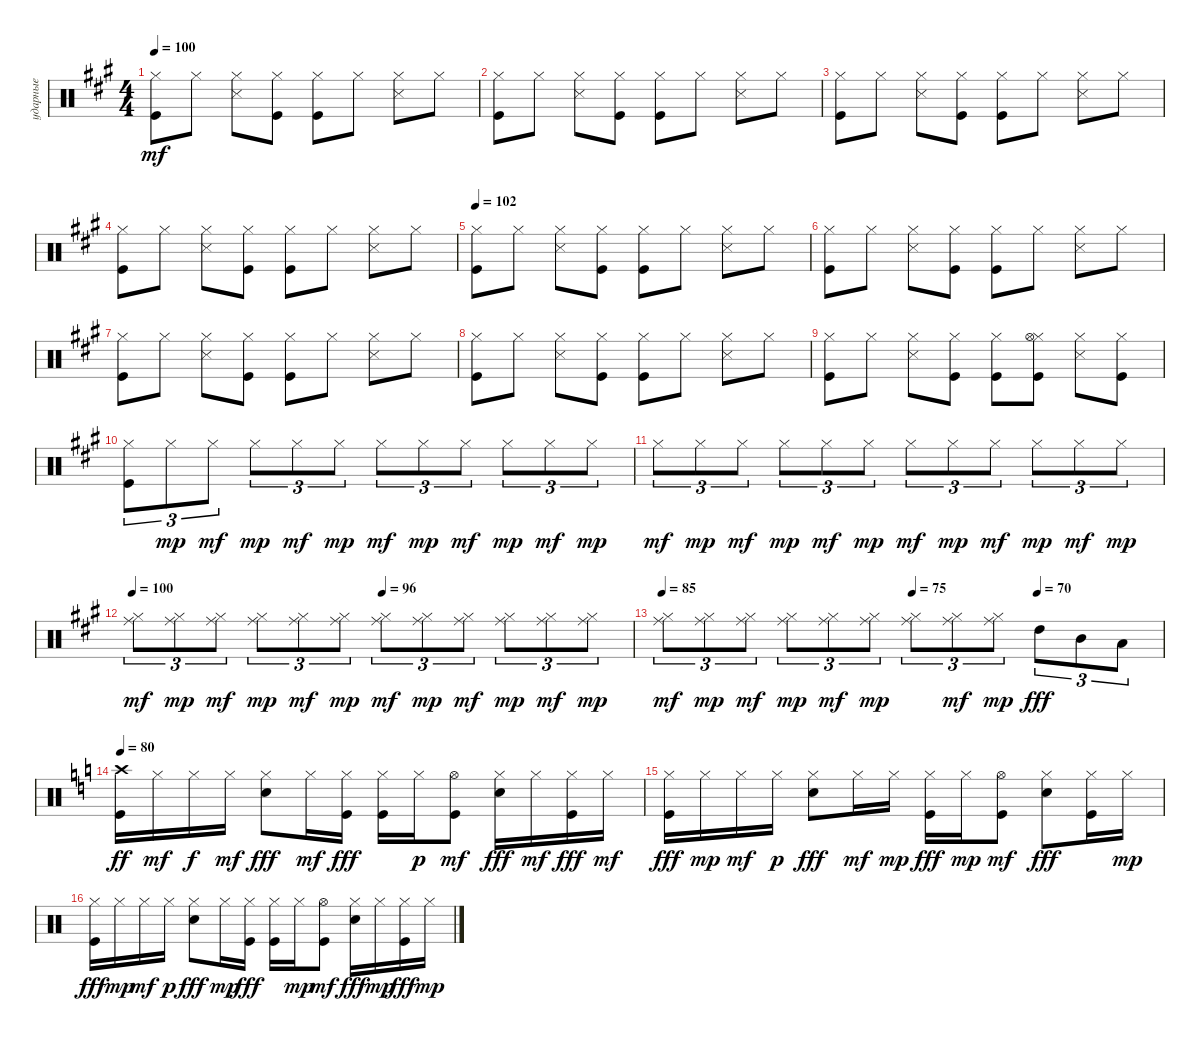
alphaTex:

\track ("ударные" "ударные") {instrument percussion}
\staff {score}
\articulation defaults
\ts (4 4)
\tempo 100
\clef neutral
\ks f#minor
("Hi-Hat (closed)" "Kick (hit)").8{dy mf} "Hi-Hat (closed)".8 ("Hi-Hat (closed)" "Snare (side stick) 3").8 ("Hi-Hat (closed)" "Kick (hit)").8 ("Hi-Hat (closed)" "Kick (hit)").8 "Hi-Hat (closed)".8 ("Hi-Hat (closed)" "Snare (side stick) 3").8 "Hi-Hat (closed)".8 |
("Hi-Hat (closed)" "Kick (hit)").8 "Hi-Hat (closed)".8 ("Hi-Hat (closed)" "Snare (side stick) 3").8 ("Hi-Hat (closed)" "Kick (hit)").8 ("Hi-Hat (closed)" "Kick (hit)").8 "Hi-Hat (closed)".8 ("Hi-Hat (closed)" "Snare (side stick) 3").8 "Hi-Hat (closed)".8 |
("Hi-Hat (closed)" "Kick (hit)").8 "Hi-Hat (closed)".8 ("Hi-Hat (closed)" "Snare (side stick) 3").8 ("Hi-Hat (closed)" "Kick (hit)").8 ("Hi-Hat (closed)" "Kick (hit)").8 "Hi-Hat (closed)".8 ("Hi-Hat (closed)" "Snare (side stick) 3").8 "Hi-Hat (closed)".8 |
("Hi-Hat (closed)" "Kick (hit)").8 "Hi-Hat (closed)".8 ("Hi-Hat (closed)" "Snare (side stick) 3").8 ("Hi-Hat (closed)" "Kick (hit)").8 ("Hi-Hat (closed)" "Kick (hit)").8 "Hi-Hat (closed)".8 ("Hi-Hat (closed)" "Snare (side stick) 3").8 "Hi-Hat (closed)".8 |
\tempo 102
("Hi-Hat (closed)" "Kick (hit)").8 "Hi-Hat (closed)".8 ("Hi-Hat (closed)" "Snare (side stick) 3").8 ("Hi-Hat (closed)" "Kick (hit)").8 ("Hi-Hat (closed)" "Kick (hit)").8 "Hi-Hat (closed)".8 ("Hi-Hat (closed)" "Snare (side stick) 3").8 "Hi-Hat (closed)".8 |
("Hi-Hat (closed)" "Kick (hit)").8 "Hi-Hat (closed)".8 ("Hi-Hat (closed)" "Snare (side stick) 3").8 ("Hi-Hat (closed)" "Kick (hit)").8 ("Hi-Hat (closed)" "Kick (hit)").8 "Hi-Hat (closed)".8 ("Hi-Hat (closed)" "Snare (side stick) 3").8 "Hi-Hat (closed)".8 |
("Hi-Hat (closed)" "Kick (hit)").8 "Hi-Hat (closed)".8 ("Hi-Hat (closed)" "Snare (side stick) 3").8 ("Hi-Hat (closed)" "Kick (hit)").8 ("Hi-Hat (closed)" "Kick (hit)").8 "Hi-Hat (closed)".8 ("Hi-Hat (closed)" "Snare (side stick) 3").8 "Hi-Hat (closed)".8 |
("Hi-Hat (closed)" "Kick (hit)").8 "Hi-Hat (closed)".8 ("Hi-Hat (closed)" "Snare (side stick) 3").8 ("Hi-Hat (closed)" "Kick (hit)").8 ("Hi-Hat (closed)" "Kick (hit)").8 "Hi-Hat (closed)".8 ("Hi-Hat (closed)" "Snare (side stick) 3").8 "Hi-Hat (closed)".8 |
("Hi-Hat (closed)" "Kick (hit)").8 "Hi-Hat (closed)".8 ("Hi-Hat (closed)" "Snare (side stick) 3").8 ("Hi-Hat (closed)" "Kick (hit)").8 ("Hi-Hat (closed)" "Kick (hit)").8 ("Hi-Hat (closed)" "Hi-Hat (open)" "Kick (hit)").8 ("Hi-Hat (closed)" "Snare (side stick) 3").8 ("Hi-Hat (closed)" "Kick (hit)").8 |
("Hi-Hat (closed)" "Kick (hit)").8{tu (3 2)} "Hi-Hat (closed)".8{tu (3 2) dy mp} "Hi-Hat (closed)".8{tu (3 2) dy mf} "Hi-Hat (closed)".8{tu (3 2) dy mp} "Hi-Hat (closed)".8{tu (3 2) dy mf} "Hi-Hat (closed)".8{tu (3 2) dy mp} "Hi-Hat (closed)".8{tu (3 2) dy mf} "Hi-Hat (closed)".8{tu (3 2) dy mp} "Hi-Hat (closed)".8{tu (3 2) dy mf} "Hi-Hat (closed)".8{tu (3 2) dy mp} "Hi-Hat (closed)".8{tu (3 2) dy mf} "Hi-Hat (closed)".8{tu (3 2) dy mp} |
"Hi-Hat (closed)".8{tu (3 2) dy mf} "Hi-Hat (closed)".8{tu (3 2) dy mp} "Hi-Hat (closed)".8{tu (3 2) dy mf} "Hi-Hat (closed)".8{tu (3 2) dy mp} "Hi-Hat (closed)".8{tu (3 2) dy mf} "Hi-Hat (closed)".8{tu (3 2) dy mp} "Hi-Hat (closed)".8{tu (3 2) dy mf} "Hi-Hat (closed)".8{tu (3 2) dy mp} "Hi-Hat (closed)".8{tu (3 2) dy mf} "Hi-Hat (closed)".8{tu (3 2) dy mp} "Hi-Hat (closed)".8{tu (3 2) dy mf} "Hi-Hat (closed)".8{tu (3 2) dy mp} |
\tempo 100
\tempo (96 0.5)
("Ride (middle)" "Hi-Hat (closed)").8{tu (3 2) dy mf} ("Ride (middle)" "Hi-Hat (closed)").8{tu (3 2) dy mp} ("Ride (middle)" "Hi-Hat (closed)").8{tu (3 2) dy mf} ("Ride (middle)" "Hi-Hat (closed)").8{tu (3 2) dy mp} ("Ride (middle)" "Hi-Hat (closed)").8{tu (3 2) dy mf} ("Ride (middle)" "Hi-Hat (closed)").8{tu (3 2) dy mp} ("Ride (middle)" "Hi-Hat (closed)").8{tu (3 2) dy mf} ("Ride (middle)" "Hi-Hat (closed)").8{tu (3 2) dy mp} ("Ride (middle)" "Hi-Hat (closed)").8{tu (3 2) dy mf} ("Ride (middle)" "Hi-Hat (closed)").8{tu (3 2) dy mp} ("Ride (middle)" "Hi-Hat (closed)").8{tu (3 2) dy mf} ("Ride (middle)" "Hi-Hat (closed)").8{tu (3 2) dy mp} |
\tempo 85
\tempo (75 0.5)
\tempo (70 0.75)
("Ride (middle)" "Hi-Hat (closed)").8{tu (3 2) dy mf} ("Ride (middle)" "Hi-Hat (closed)").8{tu (3 2) dy mp} ("Ride (middle)" "Hi-Hat (closed)").8{tu (3 2) dy mf} ("Ride (middle)" "Hi-Hat (closed)").8{tu (3 2) dy mp} ("Ride (middle)" "Hi-Hat (closed)").8{tu (3 2) dy mf} ("Ride (middle)" "Hi-Hat (closed)").8{tu (3 2) dy mp} ("Ride (middle)" "Hi-Hat (closed)").8{tu (3 2)} ("Ride (middle)" "Hi-Hat (closed)").8{tu (3 2) dy mf} ("Ride (middle)" "Hi-Hat (closed)").8{tu (3 2) dy mp} "High Tom (hit)".8{tu (3 2) dy fff} "Mid Tom (hit)".8{tu (3 2)} "Low Tom (hit)".8{tu (3 2)} |
\tempo 80
\ks aminor
("Kick (hit)" "Crash high (hit)").16{dy ff} "Hi-Hat (closed)".16{dy mf} "Hi-Hat (closed)".16{dy f} "Hi-Hat (closed)".16{dy mf} ("Snare (hit) 2" "Hi-Hat (closed)").8{dy fff} "Hi-Hat (closed)".16{dy mf} ("Hi-Hat (closed)" "Kick (hit)").16{dy fff} ("Kick (hit)" "Hi-Hat (closed)").16 "Hi-Hat (closed)".16{dy p} ("Kick (hit)" "Hi-Hat (open)").8{dy mf} ("Snare (hit) 2" "Hi-Hat (closed)").16{dy fff} "Hi-Hat (closed)".16{dy mf} ("Kick (hit)" "Hi-Hat (closed)").16{dy fff} "Hi-Hat (closed)".16{dy mf} |
("Kick (hit)" "Hi-Hat (closed)").16{dy fff} "Hi-Hat (closed)".16{dy mp} "Hi-Hat (closed)".16{dy mf} "Hi-Hat (closed)".16{dy p} ("Snare (hit) 2" "Hi-Hat (closed)").8{dy fff} "Hi-Hat (closed)".16{dy mf} "Hi-Hat (closed)".16{dy mp} ("Kick (hit)" "Hi-Hat (closed)").16{dy fff} "Hi-Hat (closed)".16{dy mp} ("Kick (hit)" "Hi-Hat (open)").8{dy mf} ("Snare (hit) 2" "Hi-Hat (closed)").8{dy fff} ("Hi-Hat (closed)" "Kick (hit)").16 "Hi-Hat (closed)".16{dy mp} |
("Kick (hit)" "Hi-Hat (closed)").16{dy fff} "Hi-Hat (closed)".16{dy mp} "Hi-Hat (closed)".16{dy mf} "Hi-Hat (closed)".16{dy p} ("Snare (hit) 2" "Hi-Hat (closed)").8{dy fff} "Hi-Hat (closed)".16{dy mp} ("Hi-Hat (closed)" "Kick (hit)").16{dy fff} ("Kick (hit)" "Hi-Hat (closed)").16 "Hi-Hat (closed)".16{dy mp} ("Kick (hit)" "Hi-Hat (open)").8{dy mf} ("Snare (hit) 2" "Hi-Hat (closed)").16{dy fff} "Hi-Hat (closed)".16{dy mp} ("Hi-Hat (closed)" "Kick (hit)").16{dy fff} "Hi-Hat (closed)".16{dy mp}
